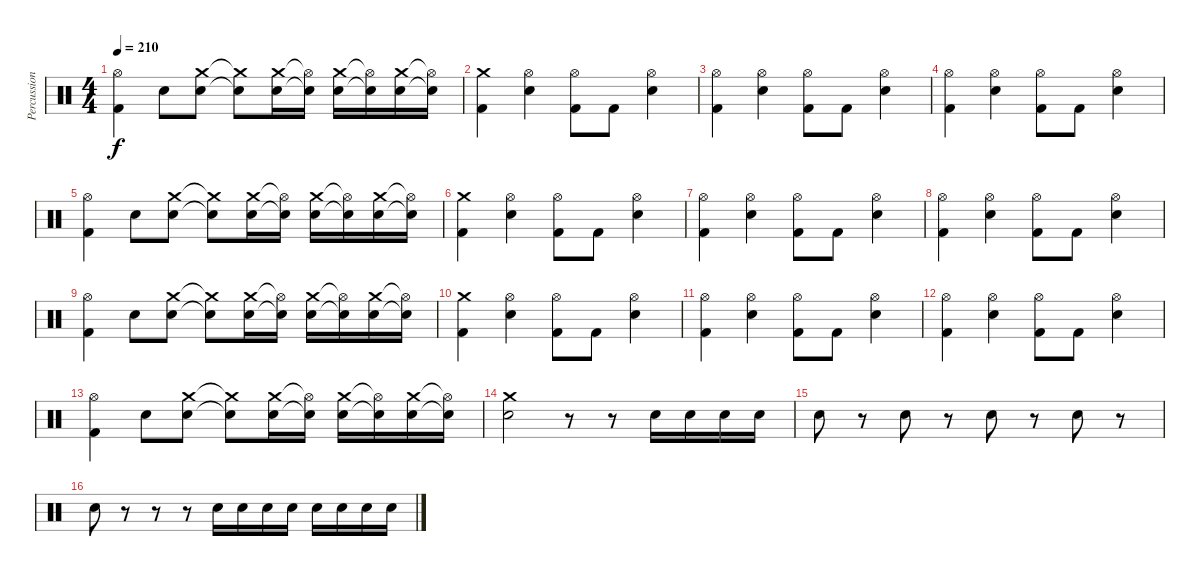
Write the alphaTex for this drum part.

\track ("Percussion" "Percussion") {instrument percussion}
\staff {score}
\articulation defaults
\ts (4 4)
\tempo 210
\clef neutral
\ks c
("Hi-Hat (open)" "Kick (hit) 2").4{dy f} "Electric Snare (hit)".8 ("Crash medium (hit)" "Electric Snare (hit)").8 ("Crash medium (hit)"{t} "Electric Snare (hit)"{t}).8 ("Crash medium (hit)" "Electric Snare (hit)").16 ("Hi-Hat (open)"{t} "Electric Snare (hit)"{t}).16 ("Crash medium (hit)" "Electric Snare (hit)").16 ("Hi-Hat (open)"{t} "Electric Snare (hit)"{t}).16 ("Crash medium (hit)" "Electric Snare (hit)").16 ("Hi-Hat (open)"{t} "Electric Snare (hit)"{t}).16 |
("Crash medium (hit)" "Kick (hit) 2").4 ("Hi-Hat (open)" "Electric Snare (hit)").4 ("Hi-Hat (open)" "Kick (hit) 2").8 "Kick (hit) 2".8 ("Hi-Hat (open)" "Electric Snare (hit)").4 |
("Hi-Hat (open)" "Kick (hit) 2").4 ("Hi-Hat (open)" "Electric Snare (hit)").4 ("Hi-Hat (open)" "Kick (hit) 2").8 "Kick (hit) 2".8 ("Hi-Hat (open)" "Electric Snare (hit)").4 |
("Hi-Hat (open)" "Kick (hit) 2").4 ("Hi-Hat (open)" "Electric Snare (hit)").4 ("Hi-Hat (open)" "Kick (hit) 2").8 "Kick (hit) 2".8 ("Hi-Hat (open)" "Electric Snare (hit)").4 |
("Hi-Hat (open)" "Kick (hit) 2").4 "Electric Snare (hit)".8 ("Crash medium (hit)" "Electric Snare (hit)").8 ("Crash medium (hit)"{t} "Electric Snare (hit)"{t}).8 ("Crash medium (hit)" "Electric Snare (hit)").16 ("Hi-Hat (open)"{t} "Electric Snare (hit)"{t}).16 ("Crash medium (hit)" "Electric Snare (hit)").16 ("Hi-Hat (open)"{t} "Electric Snare (hit)"{t}).16 ("Crash medium (hit)" "Electric Snare (hit)").16 ("Hi-Hat (open)"{t} "Electric Snare (hit)"{t}).16 |
("Crash medium (hit)" "Kick (hit) 2").4 ("Hi-Hat (open)" "Electric Snare (hit)").4 ("Hi-Hat (open)" "Kick (hit) 2").8 "Kick (hit) 2".8 ("Hi-Hat (open)" "Electric Snare (hit)").4 |
("Hi-Hat (open)" "Kick (hit) 2").4 ("Hi-Hat (open)" "Electric Snare (hit)").4 ("Hi-Hat (open)" "Kick (hit) 2").8 "Kick (hit) 2".8 ("Hi-Hat (open)" "Electric Snare (hit)").4 |
("Hi-Hat (open)" "Kick (hit) 2").4 ("Hi-Hat (open)" "Electric Snare (hit)").4 ("Hi-Hat (open)" "Kick (hit) 2").8 "Kick (hit) 2".8 ("Hi-Hat (open)" "Electric Snare (hit)").4 |
("Hi-Hat (open)" "Kick (hit) 2").4 "Electric Snare (hit)".8 ("Crash medium (hit)" "Electric Snare (hit)").8 ("Crash medium (hit)"{t} "Electric Snare (hit)"{t}).8 ("Crash medium (hit)" "Electric Snare (hit)").16 ("Hi-Hat (open)"{t} "Electric Snare (hit)"{t}).16 ("Crash medium (hit)" "Electric Snare (hit)").16 ("Hi-Hat (open)"{t} "Electric Snare (hit)"{t}).16 ("Crash medium (hit)" "Electric Snare (hit)").16 ("Hi-Hat (open)"{t} "Electric Snare (hit)"{t}).16 |
("Crash medium (hit)" "Kick (hit) 2").4 ("Hi-Hat (open)" "Electric Snare (hit)").4 ("Hi-Hat (open)" "Kick (hit) 2").8 "Kick (hit) 2".8 ("Hi-Hat (open)" "Electric Snare (hit)").4 |
("Hi-Hat (open)" "Kick (hit) 2").4 ("Hi-Hat (open)" "Electric Snare (hit)").4 ("Hi-Hat (open)" "Kick (hit) 2").8 "Kick (hit) 2".8 ("Hi-Hat (open)" "Electric Snare (hit)").4 |
("Hi-Hat (open)" "Kick (hit) 2").4 ("Hi-Hat (open)" "Electric Snare (hit)").4 ("Hi-Hat (open)" "Kick (hit) 2").8 "Kick (hit) 2".8 ("Hi-Hat (open)" "Electric Snare (hit)").4 |
("Hi-Hat (open)" "Kick (hit) 2").4 "Electric Snare (hit)".8 ("Crash medium (hit)" "Electric Snare (hit)").8 ("Crash medium (hit)"{t} "Electric Snare (hit)"{t}).8 ("Crash medium (hit)" "Electric Snare (hit)").16 ("Hi-Hat (open)"{t} "Electric Snare (hit)"{t}).16 ("Crash medium (hit)" "Electric Snare (hit)").16 ("Hi-Hat (open)"{t} "Electric Snare (hit)"{t}).16 ("Crash medium (hit)" "Electric Snare (hit)").16 ("Hi-Hat (open)"{t} "Electric Snare (hit)"{t}).16 |
("Crash medium (hit)" "Electric Snare (hit)").2 r.8 r.8 "Electric Snare (hit)".16 "Electric Snare (hit)".16 "Electric Snare (hit)".16 "Electric Snare (hit)".16 |
"Electric Snare (hit)".8 r.8 "Electric Snare (hit)".8 r.8 "Electric Snare (hit)".8 r.8 "Electric Snare (hit)".8 r.8 |
"Electric Snare (hit)".8 r.8 r.8 r.8 "Electric Snare (hit)".16 "Electric Snare (hit)".16 "Electric Snare (hit)".16 "Electric Snare (hit)".16 "Electric Snare (hit)".16 "Electric Snare (hit)".16 "Electric Snare (hit)".16 "Electric Snare (hit)".16
